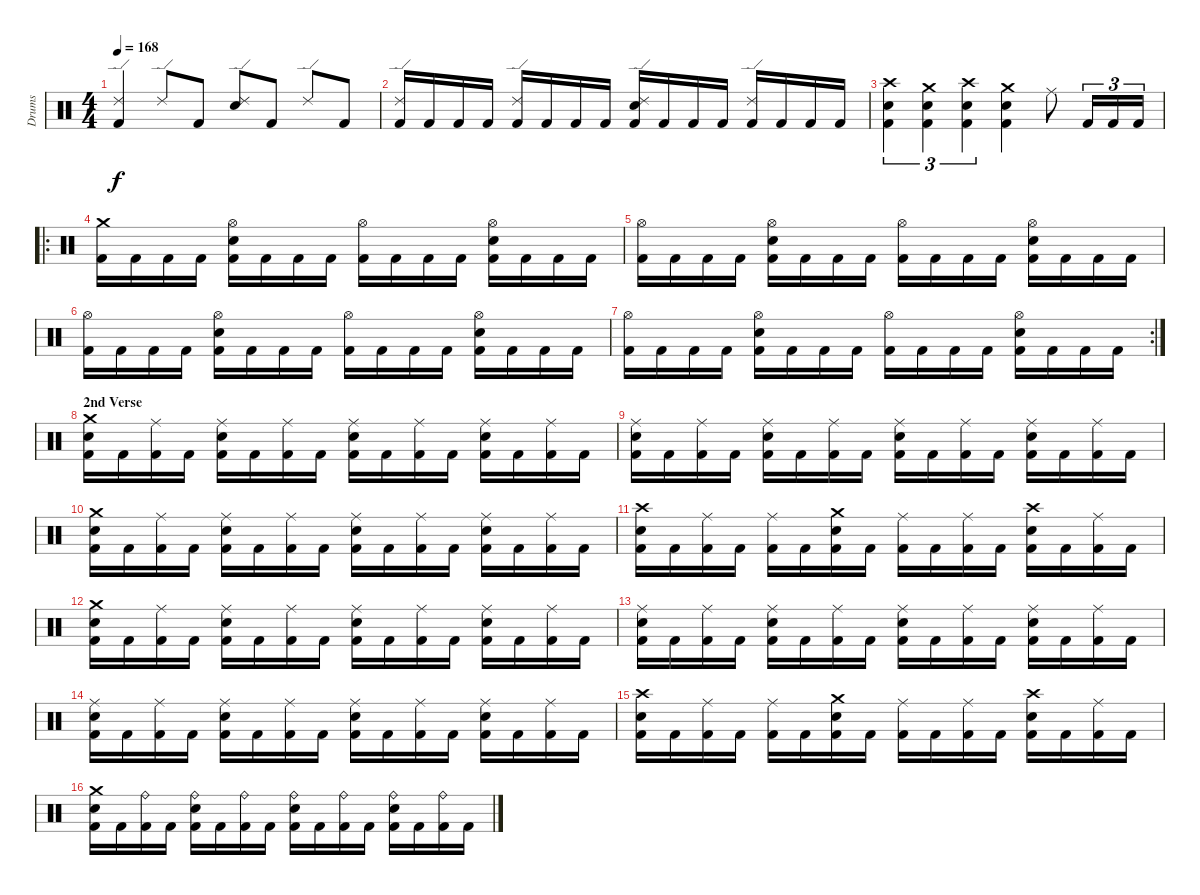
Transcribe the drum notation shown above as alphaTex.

\track ("Drums" "Drums") {instrument percussion}
\staff {score}
\articulation defaults
\ts (4 4)
\tempo 168
\clef neutral
\ks c
("Kick (hit) 2" "Ride (edge) 2").4{dy f} "Ride (edge) 2".8 "Kick (hit) 2".8 ("Snare (hit) 2" "Ride (edge) 2").8 "Kick (hit) 2".8 "Ride (edge) 2".8 "Kick (hit) 2".8 |
("Kick (hit) 2" "Ride (edge) 2").16 "Kick (hit) 2".16 "Kick (hit) 2".16 "Kick (hit) 2".16 ("Kick (hit) 2" "Ride (edge) 2").16 "Kick (hit) 2".16 "Kick (hit) 2".16 "Kick (hit) 2".16 ("Kick (hit) 2" "Snare (hit) 2" "Ride (edge) 2").16 "Kick (hit) 2".16 "Kick (hit) 2".16 "Kick (hit) 2".16 ("Kick (hit) 2" "Ride (edge) 2").16 "Kick (hit) 2".16 "Kick (hit) 2".16 "Kick (hit) 2".16 |
("Kick (hit) 2" "Snare (hit) 2" "Crash high (hit)").4{tu (3 2)} ("Kick (hit) 2" "Snare (hit) 2" "Crash medium (hit)").4{tu (3 2)} ("Kick (hit) 2" "Snare (hit) 2" "Crash high (hit)").4{tu (3 2)} ("Kick (hit) 2" "Snare (hit) 2" "Crash medium (hit)").4 "Ride (middle)".8 "Kick (hit) 2".16{tu (3 2)} "Kick (hit) 2".16{tu (3 2)} "Kick (hit) 2".16{tu (3 2)} |
\ro
("Kick (hit) 2" "Crash medium (hit)").16 "Kick (hit) 2".16 "Kick (hit) 2".16 "Kick (hit) 2".16 ("Kick (hit) 2" "Snare (hit) 2" "Hi-Hat (open)").16 "Kick (hit) 2".16 "Kick (hit) 2".16 "Kick (hit) 2".16 ("Kick (hit) 2" "Hi-Hat (open)").16 "Kick (hit) 2".16 "Kick (hit) 2".16 "Kick (hit) 2".16 ("Kick (hit) 2" "Snare (hit) 2" "Hi-Hat (open)").16 "Kick (hit) 2".16 "Kick (hit) 2".16 "Kick (hit) 2".16 |
("Kick (hit) 2" "Hi-Hat (open)").16 "Kick (hit) 2".16 "Kick (hit) 2".16 "Kick (hit) 2".16 ("Kick (hit) 2" "Snare (hit) 2" "Hi-Hat (open)").16 "Kick (hit) 2".16 "Kick (hit) 2".16 "Kick (hit) 2".16 ("Kick (hit) 2" "Hi-Hat (open)").16 "Kick (hit) 2".16 "Kick (hit) 2".16 "Kick (hit) 2".16 ("Kick (hit) 2" "Snare (hit) 2" "Hi-Hat (open)").16 "Kick (hit) 2".16 "Kick (hit) 2".16 "Kick (hit) 2".16 |
("Kick (hit) 2" "Hi-Hat (open)").16 "Kick (hit) 2".16 "Kick (hit) 2".16 "Kick (hit) 2".16 ("Kick (hit) 2" "Snare (hit) 2" "Hi-Hat (open)").16 "Kick (hit) 2".16 "Kick (hit) 2".16 "Kick (hit) 2".16 ("Kick (hit) 2" "Hi-Hat (open)").16 "Kick (hit) 2".16 "Kick (hit) 2".16 "Kick (hit) 2".16 ("Kick (hit) 2" "Snare (hit) 2" "Hi-Hat (open)").16 "Kick (hit) 2".16 "Kick (hit) 2".16 "Kick (hit) 2".16 |
\rc 2
("Kick (hit) 2" "Hi-Hat (open)").16 "Kick (hit) 2".16 "Kick (hit) 2".16 "Kick (hit) 2".16 ("Kick (hit) 2" "Snare (hit) 2" "Hi-Hat (open)").16 "Kick (hit) 2".16 "Kick (hit) 2".16 "Kick (hit) 2".16 ("Kick (hit) 2" "Hi-Hat (open)").16 "Kick (hit) 2".16 "Kick (hit) 2".16 "Kick (hit) 2".16 ("Kick (hit) 2" "Snare (hit) 2" "Hi-Hat (open)").16 "Kick (hit) 2".16 "Kick (hit) 2".16 "Kick (hit) 2".16 |
\section ("" "2nd Verse")
("Kick (hit) 2" "Snare (hit) 2" "Crash medium (hit)").16 "Kick (hit) 2".16 ("Kick (hit) 2" "Ride (middle)").16 "Kick (hit) 2".16 ("Kick (hit) 2" "Snare (hit) 2" "Ride (middle)").16 "Kick (hit) 2".16 ("Kick (hit) 2" "Ride (middle)").16 "Kick (hit) 2".16 ("Kick (hit) 2" "Snare (hit) 2" "Ride (middle)").16 "Kick (hit) 2".16 ("Kick (hit) 2" "Ride (middle)").16 "Kick (hit) 2".16 ("Kick (hit) 2" "Snare (hit) 2" "Ride (middle)").16 "Kick (hit) 2".16 ("Kick (hit) 2" "Ride (middle)").16 "Kick (hit) 2".16 |
("Kick (hit) 2" "Snare (hit) 2" "Ride (middle)").16 "Kick (hit) 2".16 ("Kick (hit) 2" "Ride (middle)").16 "Kick (hit) 2".16 ("Kick (hit) 2" "Snare (hit) 2" "Ride (middle)").16 "Kick (hit) 2".16 ("Kick (hit) 2" "Ride (middle)").16 "Kick (hit) 2".16 ("Kick (hit) 2" "Snare (hit) 2" "Ride (middle)").16 "Kick (hit) 2".16 ("Kick (hit) 2" "Ride (middle)").16 "Kick (hit) 2".16 ("Kick (hit) 2" "Snare (hit) 2" "Ride (middle)").16 "Kick (hit) 2".16 ("Kick (hit) 2" "Ride (middle)").16 "Kick (hit) 2".16 |
("Kick (hit) 2" "Snare (hit) 2" "Crash medium (hit)").16 "Kick (hit) 2".16 ("Kick (hit) 2" "Ride (middle)").16 "Kick (hit) 2".16 ("Kick (hit) 2" "Snare (hit) 2" "Ride (middle)").16 "Kick (hit) 2".16 ("Kick (hit) 2" "Ride (middle)").16 "Kick (hit) 2".16 ("Kick (hit) 2" "Snare (hit) 2" "Ride (middle)").16 "Kick (hit) 2".16 ("Kick (hit) 2" "Ride (middle)").16 "Kick (hit) 2".16 ("Kick (hit) 2" "Snare (hit) 2" "Ride (middle)").16 "Kick (hit) 2".16 ("Kick (hit) 2" "Ride (middle)").16 "Kick (hit) 2".16 |
("Kick (hit) 2" "Snare (hit) 2" "Crash high (hit)").16 "Kick (hit) 2".16 ("Kick (hit) 2" "Ride (middle)").16 "Kick (hit) 2".16 ("Kick (hit) 2" "Ride (middle)").16 "Kick (hit) 2".16 ("Kick (hit) 2" "Snare (hit) 2" "Crash medium (hit)").16 "Kick (hit) 2".16 ("Kick (hit) 2" "Ride (middle)").16 "Kick (hit) 2".16 ("Kick (hit) 2" "Ride (middle)").16 "Kick (hit) 2".16 ("Kick (hit) 2" "Snare (hit) 2" "Crash high (hit)").16 "Kick (hit) 2".16 ("Kick (hit) 2" "Ride (middle)").16 "Kick (hit) 2".16 |
("Kick (hit) 2" "Snare (hit) 2" "Crash medium (hit)").16 "Kick (hit) 2".16 ("Kick (hit) 2" "Ride (middle)").16 "Kick (hit) 2".16 ("Kick (hit) 2" "Snare (hit) 2" "Ride (middle)").16 "Kick (hit) 2".16 ("Kick (hit) 2" "Ride (middle)").16 "Kick (hit) 2".16 ("Kick (hit) 2" "Snare (hit) 2" "Ride (middle)").16 "Kick (hit) 2".16 ("Kick (hit) 2" "Ride (middle)").16 "Kick (hit) 2".16 ("Kick (hit) 2" "Snare (hit) 2" "Ride (middle)").16 "Kick (hit) 2".16 ("Kick (hit) 2" "Ride (middle)").16 "Kick (hit) 2".16 |
("Kick (hit) 2" "Snare (hit) 2" "Ride (middle)").16 "Kick (hit) 2".16 ("Kick (hit) 2" "Ride (middle)").16 "Kick (hit) 2".16 ("Kick (hit) 2" "Snare (hit) 2" "Ride (middle)").16 "Kick (hit) 2".16 ("Kick (hit) 2" "Ride (middle)").16 "Kick (hit) 2".16 ("Kick (hit) 2" "Snare (hit) 2" "Ride (middle)").16 "Kick (hit) 2".16 ("Kick (hit) 2" "Ride (middle)").16 "Kick (hit) 2".16 ("Kick (hit) 2" "Snare (hit) 2" "Ride (middle)").16 "Kick (hit) 2".16 ("Kick (hit) 2" "Ride (middle)").16 "Kick (hit) 2".16 |
("Kick (hit) 2" "Snare (hit) 2" "Ride (middle)").16 "Kick (hit) 2".16 ("Kick (hit) 2" "Ride (middle)").16 "Kick (hit) 2".16 ("Kick (hit) 2" "Snare (hit) 2" "Ride (middle)").16 "Kick (hit) 2".16 ("Kick (hit) 2" "Ride (middle)").16 "Kick (hit) 2".16 ("Kick (hit) 2" "Snare (hit) 2" "Ride (middle)").16 "Kick (hit) 2".16 ("Kick (hit) 2" "Ride (middle)").16 "Kick (hit) 2".16 ("Kick (hit) 2" "Snare (hit) 2" "Ride (middle)").16 "Kick (hit) 2".16 ("Kick (hit) 2" "Ride (middle)").16 "Kick (hit) 2".16 |
("Kick (hit) 2" "Snare (hit) 2" "Crash high (hit)").16 "Kick (hit) 2".16 ("Kick (hit) 2" "Ride (middle)").16 "Kick (hit) 2".16 ("Kick (hit) 2" "Ride (middle)").16 "Kick (hit) 2".16 ("Kick (hit) 2" "Snare (hit) 2" "Crash medium (hit)").16 "Kick (hit) 2".16 ("Kick (hit) 2" "Ride (middle)").16 "Kick (hit) 2".16 ("Kick (hit) 2" "Ride (middle)").16 "Kick (hit) 2".16 ("Kick (hit) 2" "Snare (hit) 2" "Crash high (hit)").16 "Kick (hit) 2".16 ("Kick (hit) 2" "Ride (middle)").16 "Kick (hit) 2".16 |
("Kick (hit) 2" "Snare (hit) 2" "Crash medium (hit)").16 "Kick (hit) 2".16 ("Kick (hit) 2" "Ride (bell)").16 "Kick (hit) 2".16 ("Kick (hit) 2" "Snare (hit) 2" "Ride (bell)").16 "Kick (hit) 2".16 ("Kick (hit) 2" "Ride (bell)").16 "Kick (hit) 2".16 ("Kick (hit) 2" "Snare (hit) 2" "Ride (bell)").16 "Kick (hit) 2".16 ("Kick (hit) 2" "Ride (bell)").16 "Kick (hit) 2".16 ("Kick (hit) 2" "Snare (hit) 2" "Ride (bell)").16 "Kick (hit) 2".16 ("Kick (hit) 2" "Ride (bell)").16 "Kick (hit) 2".16
